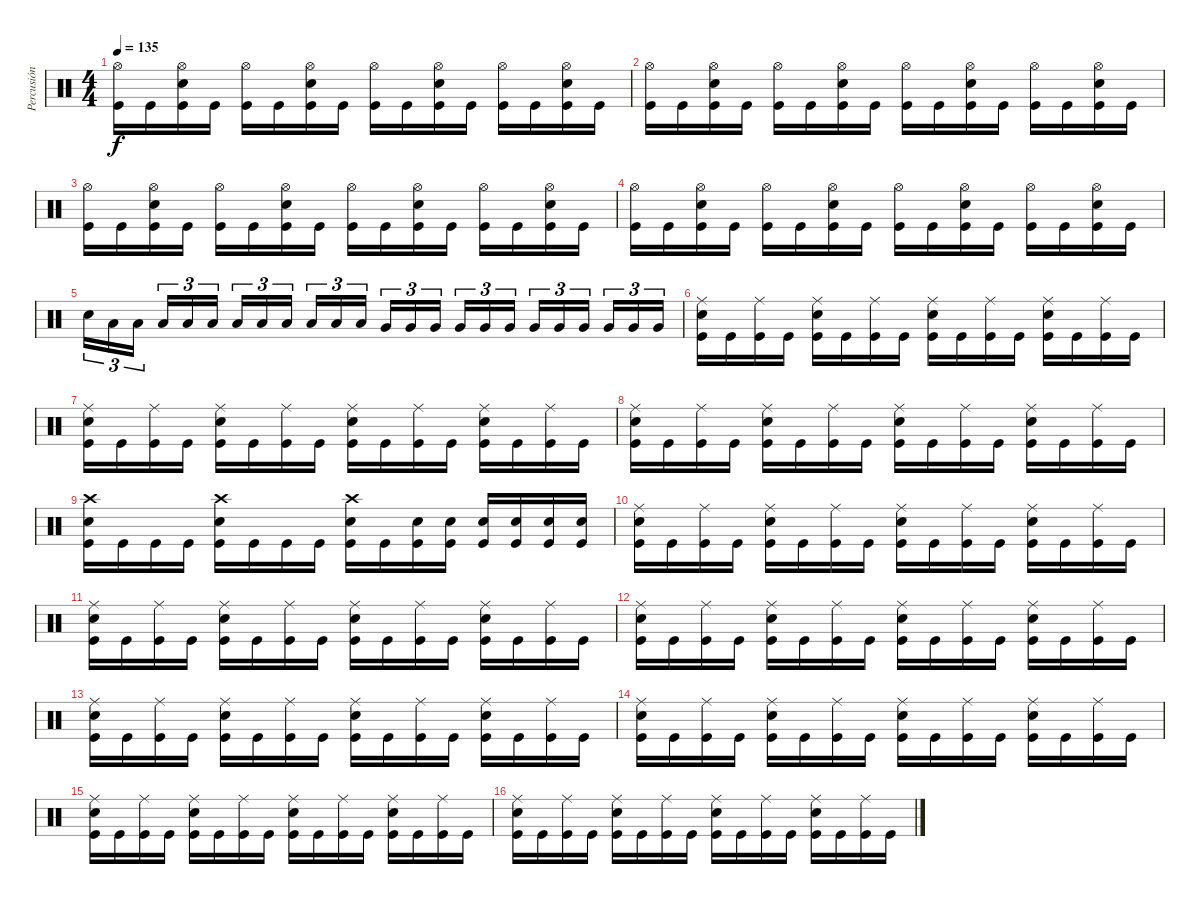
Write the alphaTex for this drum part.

\track ("Percusión" "Percusión") {instrument percussion}
\staff {score}
\articulation defaults
\ts (4 4)
\tempo 135
\clef neutral
\ks c
("Hi-Hat (open)" "Kick (hit)").16{dy f} "Kick (hit)".16 ("Hi-Hat (open)" "Snare (hit) 2" "Kick (hit)").16 "Kick (hit)".16 ("Hi-Hat (open)" "Kick (hit)").16 "Kick (hit)".16 ("Hi-Hat (open)" "Snare (hit) 2" "Kick (hit)").16 "Kick (hit)".16 ("Hi-Hat (open)" "Kick (hit)").16 "Kick (hit)".16 ("Hi-Hat (open)" "Snare (hit) 2" "Kick (hit)").16 "Kick (hit)".16 ("Hi-Hat (open)" "Kick (hit)").16 "Kick (hit)".16 ("Hi-Hat (open)" "Snare (hit) 2" "Kick (hit)").16 "Kick (hit)".16 |
("Hi-Hat (open)" "Kick (hit)").16 "Kick (hit)".16 ("Hi-Hat (open)" "Snare (hit) 2" "Kick (hit)").16 "Kick (hit)".16 ("Hi-Hat (open)" "Kick (hit)").16 "Kick (hit)".16 ("Hi-Hat (open)" "Snare (hit) 2" "Kick (hit)").16 "Kick (hit)".16 ("Hi-Hat (open)" "Kick (hit)").16 "Kick (hit)".16 ("Hi-Hat (open)" "Snare (hit) 2" "Kick (hit)").16 "Kick (hit)".16 ("Hi-Hat (open)" "Kick (hit)").16 "Kick (hit)".16 ("Hi-Hat (open)" "Snare (hit) 2" "Kick (hit)").16 "Kick (hit)".16 |
("Hi-Hat (open)" "Kick (hit)").16 "Kick (hit)".16 ("Hi-Hat (open)" "Snare (hit) 2" "Kick (hit)").16 "Kick (hit)".16 ("Hi-Hat (open)" "Kick (hit)").16 "Kick (hit)".16 ("Hi-Hat (open)" "Snare (hit) 2" "Kick (hit)").16 "Kick (hit)".16 ("Hi-Hat (open)" "Kick (hit)").16 "Kick (hit)".16 ("Hi-Hat (open)" "Snare (hit) 2" "Kick (hit)").16 "Kick (hit)".16 ("Hi-Hat (open)" "Kick (hit)").16 "Kick (hit)".16 ("Hi-Hat (open)" "Snare (hit) 2" "Kick (hit)").16 "Kick (hit)".16 |
("Hi-Hat (open)" "Kick (hit)").16 "Kick (hit)".16 ("Hi-Hat (open)" "Snare (hit) 2" "Kick (hit)").16 "Kick (hit)".16 ("Hi-Hat (open)" "Kick (hit)").16 "Kick (hit)".16 ("Hi-Hat (open)" "Snare (hit) 2" "Kick (hit)").16 "Kick (hit)".16 ("Hi-Hat (open)" "Kick (hit)").16 "Kick (hit)".16 ("Hi-Hat (open)" "Snare (hit) 2" "Kick (hit)").16 "Kick (hit)".16 ("Hi-Hat (open)" "Kick (hit)").16 "Kick (hit)".16 ("Hi-Hat (open)" "Snare (hit) 2" "Kick (hit)").16 "Kick (hit)".16 |
"Snare (hit) 2".16{tu (3 2)} "Low Floor Tom (hit)".16{tu (3 2)} "Low Floor Tom (hit)".16{tu (3 2) beam splitsecondary} "Low Floor Tom (hit)".16{tu (3 2)} "Low Floor Tom (hit)".16{tu (3 2)} "Low Floor Tom (hit)".16{tu (3 2)} "Low Floor Tom (hit)".16{tu (3 2)} "Low Floor Tom (hit)".16{tu (3 2)} "Low Floor Tom (hit)".16{tu (3 2) beam splitsecondary} "Low Floor Tom (hit)".16{tu (3 2)} "Low Floor Tom (hit)".16{tu (3 2)} "Low Floor Tom (hit)".16{tu (3 2)} "Very Low Tom (hit)".16{tu (3 2)} "Very Low Tom (hit)".16{tu (3 2)} "Very Low Tom (hit)".16{tu (3 2) beam splitsecondary} "Very Low Tom (hit)".16{tu (3 2)} "Very Low Tom (hit)".16{tu (3 2)} "Very Low Tom (hit)".16{tu (3 2)} "Very Low Tom (hit)".16{tu (3 2)} "Very Low Tom (hit)".16{tu (3 2)} "Very Low Tom (hit)".16{tu (3 2) beam splitsecondary} "Very Low Tom (hit)".16{tu (3 2)} "Very Low Tom (hit)".16{tu (3 2)} "Very Low Tom (hit)".16{tu (3 2)} |
("Ride (middle)" "Snare (hit) 2" "Kick (hit)").16 "Kick (hit)".16 ("Ride (middle)" "Kick (hit)").16 "Kick (hit)".16 ("Ride (middle)" "Snare (hit) 2" "Kick (hit)").16 "Kick (hit)".16 ("Ride (middle)" "Kick (hit)").16 "Kick (hit)".16 ("Ride (middle)" "Snare (hit) 2" "Kick (hit)").16 "Kick (hit)".16 ("Ride (middle)" "Kick (hit)").16 "Kick (hit)".16 ("Ride (middle)" "Snare (hit) 2" "Kick (hit)").16 "Kick (hit)".16 ("Ride (middle)" "Kick (hit)").16 "Kick (hit)".16 |
("Ride (middle)" "Snare (hit) 2" "Kick (hit)").16 "Kick (hit)".16 ("Ride (middle)" "Kick (hit)").16 "Kick (hit)".16 ("Ride (middle)" "Snare (hit) 2" "Kick (hit)").16 "Kick (hit)".16 ("Ride (middle)" "Kick (hit)").16 "Kick (hit)".16 ("Ride (middle)" "Snare (hit) 2" "Kick (hit)").16 "Kick (hit)".16 ("Ride (middle)" "Kick (hit)").16 "Kick (hit)".16 ("Ride (middle)" "Snare (hit) 2" "Kick (hit)").16 "Kick (hit)".16 ("Ride (middle)" "Kick (hit)").16 "Kick (hit)".16 |
("Ride (middle)" "Snare (hit) 2" "Kick (hit)").16 "Kick (hit)".16 ("Ride (middle)" "Kick (hit)").16 "Kick (hit)".16 ("Ride (middle)" "Snare (hit) 2" "Kick (hit)").16 "Kick (hit)".16 ("Ride (middle)" "Kick (hit)").16 "Kick (hit)".16 ("Ride (middle)" "Snare (hit) 2" "Kick (hit)").16 "Kick (hit)".16 ("Ride (middle)" "Kick (hit)").16 "Kick (hit)".16 ("Ride (middle)" "Snare (hit) 2" "Kick (hit)").16 "Kick (hit)".16 ("Ride (middle)" "Kick (hit)").16 "Kick (hit)".16 |
("Crash high (hit)" "Snare (hit) 2" "Kick (hit)").16 "Kick (hit)".16 "Kick (hit)".16 "Kick (hit)".16 ("Crash high (hit)" "Snare (hit) 2" "Kick (hit)").16 "Kick (hit)".16 "Kick (hit)".16 "Kick (hit)".16 ("Crash high (hit)" "Snare (hit) 2" "Kick (hit)").16 "Kick (hit)".16 ("Snare (hit) 2" "Kick (hit)").16 ("Snare (hit) 2" "Kick (hit)").16 ("Snare (hit) 2" "Kick (hit)").16 ("Snare (hit) 2" "Kick (hit)").16 ("Snare (hit) 2" "Kick (hit)").16 ("Snare (hit) 2" "Kick (hit)").16 |
("Ride (middle)" "Snare (hit) 2" "Kick (hit)").16 "Kick (hit)".16 ("Ride (middle)" "Kick (hit)").16 "Kick (hit)".16 ("Ride (middle)" "Snare (hit) 2" "Kick (hit)").16 "Kick (hit)".16 ("Ride (middle)" "Kick (hit)").16 "Kick (hit)".16 ("Ride (middle)" "Snare (hit) 2" "Kick (hit)").16 "Kick (hit)".16 ("Ride (middle)" "Kick (hit)").16 "Kick (hit)".16 ("Ride (middle)" "Snare (hit) 2" "Kick (hit)").16 "Kick (hit)".16 ("Ride (middle)" "Kick (hit)").16 "Kick (hit)".16 |
("Ride (middle)" "Snare (hit) 2" "Kick (hit)").16 "Kick (hit)".16 ("Ride (middle)" "Kick (hit)").16 "Kick (hit)".16 ("Ride (middle)" "Snare (hit) 2" "Kick (hit)").16 "Kick (hit)".16 ("Ride (middle)" "Kick (hit)").16 "Kick (hit)".16 ("Ride (middle)" "Snare (hit) 2" "Kick (hit)").16 "Kick (hit)".16 ("Ride (middle)" "Kick (hit)").16 "Kick (hit)".16 ("Ride (middle)" "Snare (hit) 2" "Kick (hit)").16 "Kick (hit)".16 ("Ride (middle)" "Kick (hit)").16 "Kick (hit)".16 |
("Ride (middle)" "Snare (hit) 2" "Kick (hit)").16 "Kick (hit)".16 ("Ride (middle)" "Kick (hit)").16 "Kick (hit)".16 ("Ride (middle)" "Snare (hit) 2" "Kick (hit)").16 "Kick (hit)".16 ("Ride (middle)" "Kick (hit)").16 "Kick (hit)".16 ("Ride (middle)" "Snare (hit) 2" "Kick (hit)").16 "Kick (hit)".16 ("Ride (middle)" "Kick (hit)").16 "Kick (hit)".16 ("Ride (middle)" "Snare (hit) 2" "Kick (hit)").16 "Kick (hit)".16 ("Ride (middle)" "Kick (hit)").16 "Kick (hit)".16 |
("Ride (middle)" "Snare (hit) 2" "Kick (hit)").16 "Kick (hit)".16 ("Ride (middle)" "Kick (hit)").16 "Kick (hit)".16 ("Ride (middle)" "Snare (hit) 2" "Kick (hit)").16 "Kick (hit)".16 ("Ride (middle)" "Kick (hit)").16 "Kick (hit)".16 ("Ride (middle)" "Snare (hit) 2" "Kick (hit)").16 "Kick (hit)".16 ("Ride (middle)" "Kick (hit)").16 "Kick (hit)".16 ("Ride (middle)" "Snare (hit) 2" "Kick (hit)").16 "Kick (hit)".16 ("Ride (middle)" "Kick (hit)").16 "Kick (hit)".16 |
("Ride (middle)" "Snare (hit) 2" "Kick (hit)").16 "Kick (hit)".16 ("Ride (middle)" "Kick (hit)").16 "Kick (hit)".16 ("Ride (middle)" "Snare (hit) 2" "Kick (hit)").16 "Kick (hit)".16 ("Ride (middle)" "Kick (hit)").16 "Kick (hit)".16 ("Ride (middle)" "Snare (hit) 2" "Kick (hit)").16 "Kick (hit)".16 ("Ride (middle)" "Kick (hit)").16 "Kick (hit)".16 ("Ride (middle)" "Snare (hit) 2" "Kick (hit)").16 "Kick (hit)".16 ("Ride (middle)" "Kick (hit)").16 "Kick (hit)".16 |
("Ride (middle)" "Snare (hit) 2" "Kick (hit)").16 "Kick (hit)".16 ("Ride (middle)" "Kick (hit)").16 "Kick (hit)".16 ("Ride (middle)" "Snare (hit) 2" "Kick (hit)").16 "Kick (hit)".16 ("Ride (middle)" "Kick (hit)").16 "Kick (hit)".16 ("Ride (middle)" "Snare (hit) 2" "Kick (hit)").16 "Kick (hit)".16 ("Ride (middle)" "Kick (hit)").16 "Kick (hit)".16 ("Ride (middle)" "Snare (hit) 2" "Kick (hit)").16 "Kick (hit)".16 ("Ride (middle)" "Kick (hit)").16 "Kick (hit)".16 |
("Ride (middle)" "Snare (hit) 2" "Kick (hit)").16 "Kick (hit)".16 ("Ride (middle)" "Kick (hit)").16 "Kick (hit)".16 ("Ride (middle)" "Snare (hit) 2" "Kick (hit)").16 "Kick (hit)".16 ("Ride (middle)" "Kick (hit)").16 "Kick (hit)".16 ("Ride (middle)" "Snare (hit) 2" "Kick (hit)").16 "Kick (hit)".16 ("Ride (middle)" "Kick (hit)").16 "Kick (hit)".16 ("Ride (middle)" "Snare (hit) 2" "Kick (hit)").16 "Kick (hit)".16 ("Ride (middle)" "Kick (hit)").16 "Kick (hit)".16
